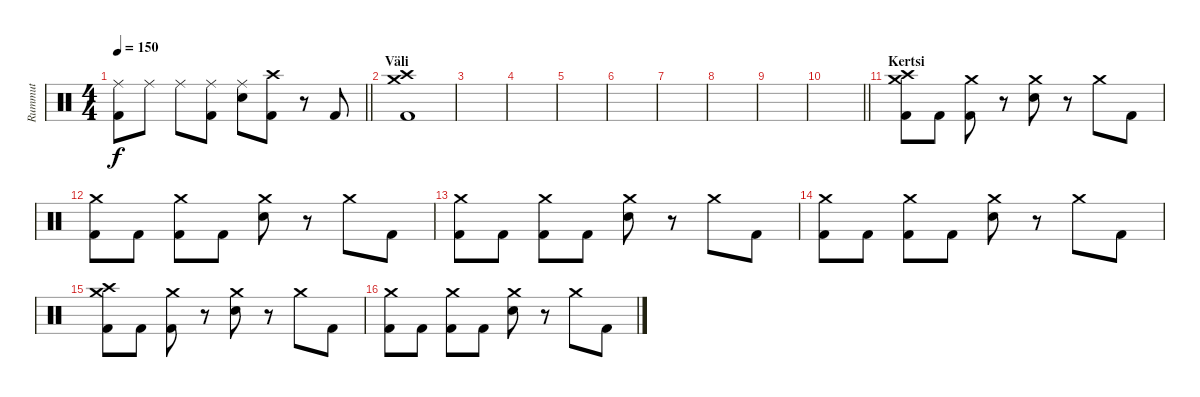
\track ("Rummut" "Rummut") {instrument percussion}
\staff {score}
\articulation defaults
\ts (4 4)
\tempo 150
\clef neutral
\barLineRight lightlight
\ks c
("Ride (middle)" "Kick (hit) 2").8{dy f} "Ride (middle)".8 "Ride (middle)".8 ("Ride (middle)" "Kick (hit) 2").8 ("Ride (middle)" "Electric Snare (hit)").8 ("Crash high (hit)" "Kick (hit) 2").8 r.8 "Kick (hit) 2".8 |
\section ("" "Väli")
("Crash high (hit)" "Crash medium (hit)" "Kick (hit) 2").1 |
|
|
|
|
|
|
|
\barLineRight lightlight
|
\section ("" "Kertsi")
("Crash high (hit)" "Crash medium (hit)" "Kick (hit) 2").8 "Kick (hit) 2".8 ("Crash medium (hit)" "Kick (hit) 2").8 r.8 ("Crash medium (hit)" "Electric Snare (hit)").8 r.8 "Crash medium (hit)".8 "Kick (hit) 2".8 |
("Crash medium (hit)" "Kick (hit) 2").8 "Kick (hit) 2".8 ("Crash medium (hit)" "Kick (hit) 2").8 "Kick (hit) 2".8 ("Crash medium (hit)" "Electric Snare (hit)").8 r.8 "Crash medium (hit)".8 "Kick (hit) 2".8 |
("Crash medium (hit)" "Kick (hit) 2").8 "Kick (hit) 2".8 ("Crash medium (hit)" "Kick (hit) 2").8 "Kick (hit) 2".8 ("Crash medium (hit)" "Electric Snare (hit)").8 r.8 "Crash medium (hit)".8 "Kick (hit) 2".8 |
("Crash medium (hit)" "Kick (hit) 2").8 "Kick (hit) 2".8 ("Crash medium (hit)" "Kick (hit) 2").8 "Kick (hit) 2".8 ("Crash medium (hit)" "Electric Snare (hit)").8 r.8 "Crash medium (hit)".8 "Kick (hit) 2".8 |
("Crash high (hit)" "Crash medium (hit)" "Kick (hit) 2").8 "Kick (hit) 2".8 ("Crash medium (hit)" "Kick (hit) 2").8 r.8 ("Crash medium (hit)" "Electric Snare (hit)").8 r.8 "Crash medium (hit)".8 "Kick (hit) 2".8 |
("Crash medium (hit)" "Kick (hit) 2").8 "Kick (hit) 2".8 ("Crash medium (hit)" "Kick (hit) 2").8 "Kick (hit) 2".8 ("Crash medium (hit)" "Electric Snare (hit)").8 r.8 "Crash medium (hit)".8 "Kick (hit) 2".8
